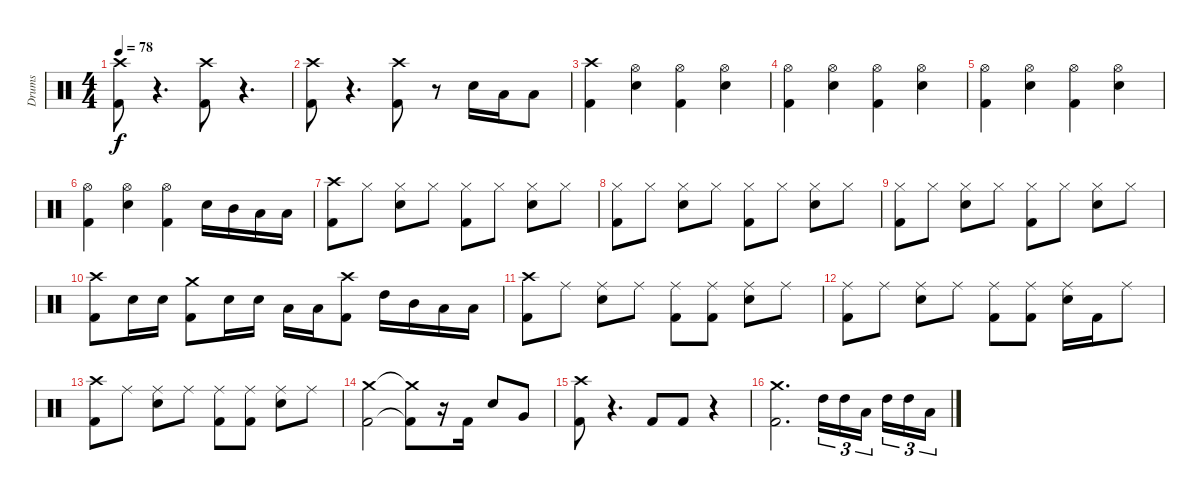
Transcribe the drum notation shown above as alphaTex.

\track ("Drums" "Drums") {instrument percussion}
\staff {score}
\articulation defaults
\ts (4 4)
\tempo 78
\clef neutral
\ks c
("Crash high (hit)" "Kick (hit) 2").8{dy f} r.4{d} ("Crash high (hit)" "Kick (hit) 2").8 r.4{d} |
("Crash high (hit)" "Kick (hit) 2").8 r.4{d} ("Crash high (hit)" "Kick (hit) 2").8 r.8 "Snare (hit) 2".16 "Low Tom (hit)".16 "Low Tom (hit)".8 |
("Crash high (hit)" "Kick (hit) 2").4 ("Hi-Hat (open)" "Snare (hit) 2").4 ("Hi-Hat (open)" "Kick (hit) 2").4 ("Hi-Hat (open)" "Snare (hit) 2").4 |
("Hi-Hat (open)" "Kick (hit) 2").4 ("Hi-Hat (open)" "Snare (hit) 2").4 ("Hi-Hat (open)" "Kick (hit) 2").4 ("Hi-Hat (open)" "Snare (hit) 2").4 |
("Hi-Hat (open)" "Kick (hit) 2").4 ("Hi-Hat (open)" "Snare (hit) 2").4 ("Hi-Hat (open)" "Kick (hit) 2").4 ("Hi-Hat (open)" "Snare (hit) 2").4 |
("Hi-Hat (open)" "Kick (hit) 2").4 ("Hi-Hat (open)" "Snare (hit) 2").4 ("Hi-Hat (open)" "Kick (hit) 2").4 "Snare (hit) 2".16 "Mid Tom (hit)".16 "Low Tom (hit)".16 "Low Tom (hit)".16 |
("Crash high (hit)" "Kick (hit) 2").8 "Hi-Hat (closed)".8 ("Hi-Hat (closed)" "Snare (hit) 2").8 "Hi-Hat (closed)".8 ("Hi-Hat (closed)" "Kick (hit) 2").8 "Hi-Hat (closed)".8 ("Hi-Hat (closed)" "Snare (hit) 2").8 "Hi-Hat (closed)".8 |
("Hi-Hat (closed)" "Kick (hit) 2").8 "Hi-Hat (closed)".8 ("Hi-Hat (closed)" "Snare (hit) 2").8 "Hi-Hat (closed)".8 ("Hi-Hat (closed)" "Kick (hit) 2").8 "Hi-Hat (closed)".8 ("Hi-Hat (closed)" "Snare (hit) 2").8 "Hi-Hat (closed)".8 |
("Hi-Hat (closed)" "Kick (hit) 2").8 "Hi-Hat (closed)".8 ("Hi-Hat (closed)" "Snare (hit) 2").8 "Hi-Hat (closed)".8 ("Hi-Hat (closed)" "Kick (hit) 2").8 "Hi-Hat (closed)".8 ("Hi-Hat (closed)" "Snare (hit) 2").8 "Hi-Hat (closed)".8 |
("Crash high (hit)" "Kick (hit) 2").8 "Snare (hit) 2".16 "Snare (hit) 2".16 ("Crash medium (hit)" "Kick (hit) 2").8 "Snare (hit) 2".16 "Snare (hit) 2".16 "Low Tom (hit)".16 "Low Tom (hit)".16 ("Crash high (hit)" "Kick (hit) 2").8 "High Tom (hit)".16 "Mid Tom (hit)".16 "Low Tom (hit)".16 "Low Tom (hit)".16 |
("Crash high (hit)" "Kick (hit) 2").8 "Ride (middle)".8 ("Ride (middle)" "Snare (hit) 2").8 "Ride (middle)".8 ("Ride (middle)" "Kick (hit) 2").8 ("Ride (middle)" "Kick (hit) 2").8 ("Ride (middle)" "Snare (hit) 2").8 "Ride (middle)".8 |
("Ride (middle)" "Kick (hit) 2").8 "Ride (middle)".8 ("Ride (middle)" "Snare (hit) 2").8 "Ride (middle)".8 ("Ride (middle)" "Kick (hit) 2").8 ("Ride (middle)" "Kick (hit) 2").8 ("Ride (middle)" "Snare (hit) 2").16 "Kick (hit) 2".16 "Ride (middle)".8 |
("Crash high (hit)" "Kick (hit) 2").8 "Ride (middle)".8 ("Ride (middle)" "Snare (hit) 2").8 "Ride (middle)".8 ("Ride (middle)" "Kick (hit) 2").8 ("Ride (middle)" "Kick (hit) 2").8 ("Ride (middle)" "Snare (hit) 2").8 "Ride (middle)".8 |
("Crash medium (hit)" "Kick (hit) 2").2 ("Crash medium (hit)"{t} "Kick (hit) 2"{t}).8 r.16 "Kick (hit) 2".16 "Snare (hit) 2".8 "Very Low Tom (hit)".8 |
("Crash high (hit)" "Kick (hit) 2").8 r.4{d} "Kick (hit) 2".8 "Kick (hit) 2".8 r.4 |
("Crash medium (hit)" "Kick (hit) 2").2{d} "High Tom (hit)".16{tu (3 2)} "High Tom (hit)".16{tu (3 2)} "Low Tom (hit)".16{tu (3 2)} "High Tom (hit)".16{tu (3 2)} "High Tom (hit)".16{tu (3 2)} "Low Tom (hit)".16{tu (3 2)}
